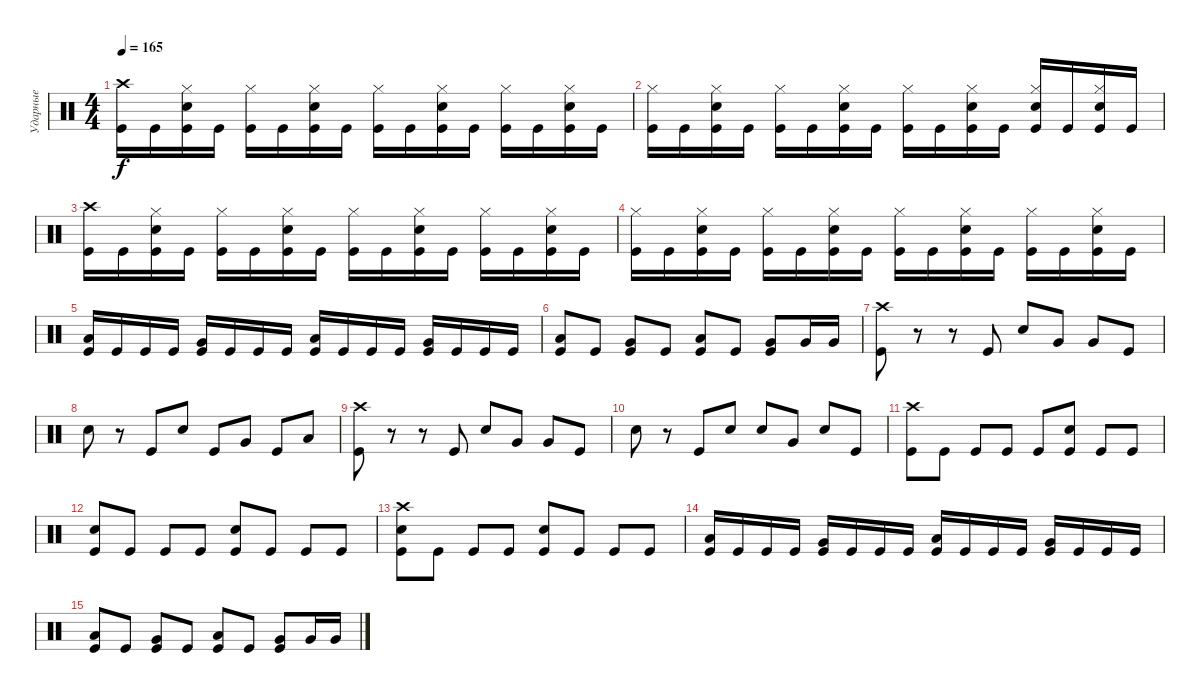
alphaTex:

\track ("Ударные" "Ударные") {instrument percussion}
\staff {score}
\articulation defaults
\ts (4 4)
\tempo 165
\clef neutral
\ks c
("Crash high (hit)" "Kick (hit)").16{dy f} "Kick (hit)".16 ("Hi-Hat (closed)" "Electric Snare (hit)" "Kick (hit)").16 "Kick (hit)".16 ("Hi-Hat (closed)" "Kick (hit)").16 "Kick (hit)".16 ("Hi-Hat (closed)" "Electric Snare (hit)" "Kick (hit)").16 "Kick (hit)".16 ("Hi-Hat (closed)" "Kick (hit)").16 "Kick (hit)".16 ("Hi-Hat (closed)" "Electric Snare (hit)" "Kick (hit)").16 "Kick (hit)".16 ("Hi-Hat (closed)" "Kick (hit)").16 "Kick (hit)".16 ("Hi-Hat (closed)" "Electric Snare (hit)" "Kick (hit)").16 "Kick (hit)".16 |
("Hi-Hat (closed)" "Kick (hit)").16 "Kick (hit)".16 ("Hi-Hat (closed)" "Electric Snare (hit)" "Kick (hit)").16 "Kick (hit)".16 ("Hi-Hat (closed)" "Kick (hit)").16 "Kick (hit)".16 ("Hi-Hat (closed)" "Electric Snare (hit)" "Kick (hit)").16 "Kick (hit)".16 ("Hi-Hat (closed)" "Kick (hit)").16 "Kick (hit)".16 ("Hi-Hat (closed)" "Electric Snare (hit)" "Kick (hit)").16 "Kick (hit)".16 ("Hi-Hat (closed)" "Electric Snare (hit)" "Kick (hit)").16 "Kick (hit)".16 ("Hi-Hat (closed)" "Electric Snare (hit)" "Kick (hit)").16 "Kick (hit)".16 |
("Crash high (hit)" "Kick (hit)").16 "Kick (hit)".16 ("Hi-Hat (closed)" "Electric Snare (hit)" "Kick (hit)").16 "Kick (hit)".16 ("Hi-Hat (closed)" "Kick (hit)").16 "Kick (hit)".16 ("Hi-Hat (closed)" "Electric Snare (hit)" "Kick (hit)").16 "Kick (hit)".16 ("Hi-Hat (closed)" "Kick (hit)").16 "Kick (hit)".16 ("Hi-Hat (closed)" "Electric Snare (hit)" "Kick (hit)").16 "Kick (hit)".16 ("Hi-Hat (closed)" "Kick (hit)").16 "Kick (hit)".16 ("Hi-Hat (closed)" "Electric Snare (hit)" "Kick (hit)").16 "Kick (hit)".16 |
("Hi-Hat (closed)" "Kick (hit)").16 "Kick (hit)".16 ("Hi-Hat (closed)" "Electric Snare (hit)" "Kick (hit)").16 "Kick (hit)".16 ("Hi-Hat (closed)" "Kick (hit)").16 "Kick (hit)".16 ("Hi-Hat (closed)" "Electric Snare (hit)" "Kick (hit)").16 "Kick (hit)".16 ("Hi-Hat (closed)" "Kick (hit)").16 "Kick (hit)".16 ("Hi-Hat (closed)" "Electric Snare (hit)" "Kick (hit)").16 "Kick (hit)".16 ("Hi-Hat (closed)" "Kick (hit)").16 "Kick (hit)".16 ("Hi-Hat (closed)" "Electric Snare (hit)" "Kick (hit)").16 "Kick (hit)".16 |
("Low Tom (hit)" "Kick (hit)").16 "Kick (hit)".16 "Kick (hit)".16 "Kick (hit)".16 ("Very Low Tom (hit)" "Kick (hit)").16 "Kick (hit)".16 "Kick (hit)".16 "Kick (hit)".16 ("Low Tom (hit)" "Kick (hit)").16 "Kick (hit)".16 "Kick (hit)".16 "Kick (hit)".16 ("Very Low Tom (hit)" "Kick (hit)").16 "Kick (hit)".16 "Kick (hit)".16 "Kick (hit)".16 |
("Low Tom (hit)" "Kick (hit)").8 "Kick (hit)".8 ("Very Low Tom (hit)" "Kick (hit)").8 "Kick (hit)".8 ("Low Tom (hit)" "Kick (hit)").8 "Kick (hit)".8 ("Very Low Tom (hit)" "Kick (hit)").8 "Very Low Tom (hit)".16 "Very Low Tom (hit)".16 |
("Crash high (hit)" "Kick (hit)").8 r.8 r.8 "Kick (hit)".8 "Electric Snare (hit)".8 "Very Low Tom (hit)".8 "Very Low Tom (hit)".8 "Kick (hit)".8 |
"Electric Snare (hit)".8 r.8 "Kick (hit)".8 "Electric Snare (hit)".8 "Kick (hit)".8 "Very Low Tom (hit)".8 "Kick (hit)".8 "Low Tom (hit)".8 |
("Crash high (hit)" "Kick (hit)").8 r.8 r.8 "Kick (hit)".8 "Electric Snare (hit)".8 "Very Low Tom (hit)".8 "Very Low Tom (hit)".8 "Kick (hit)".8 |
"Electric Snare (hit)".8 r.8 "Kick (hit)".8 "Electric Snare (hit)".8 "Electric Snare (hit)".8 "Very Low Tom (hit)".8 "Electric Snare (hit)".8 "Kick (hit)".8 |
("Crash high (hit)" "Kick (hit)").8 "Kick (hit)".8 "Kick (hit)".8 "Kick (hit)".8 "Kick (hit)".8 ("Electric Snare (hit)" "Kick (hit)").8 "Kick (hit)".8 "Kick (hit)".8 |
("Electric Snare (hit)" "Kick (hit)").8 "Kick (hit)".8 "Kick (hit)".8 "Kick (hit)".8 ("Electric Snare (hit)" "Kick (hit)").8 "Kick (hit)".8 "Kick (hit)".8 "Kick (hit)".8 |
("Crash high (hit)" "Electric Snare (hit)" "Kick (hit)").8 "Kick (hit)".8 "Kick (hit)".8 "Kick (hit)".8 ("Electric Snare (hit)" "Kick (hit)").8 "Kick (hit)".8 "Kick (hit)".8 "Kick (hit)".8 |
("Low Tom (hit)" "Kick (hit)").16 "Kick (hit)".16 "Kick (hit)".16 "Kick (hit)".16 ("Very Low Tom (hit)" "Kick (hit)").16 "Kick (hit)".16 "Kick (hit)".16 "Kick (hit)".16 ("Low Tom (hit)" "Kick (hit)").16 "Kick (hit)".16 "Kick (hit)".16 "Kick (hit)".16 ("Very Low Tom (hit)" "Kick (hit)").16 "Kick (hit)".16 "Kick (hit)".16 "Kick (hit)".16 |
("Low Tom (hit)" "Kick (hit)").8 "Kick (hit)".8 ("Very Low Tom (hit)" "Kick (hit)").8 "Kick (hit)".8 ("Low Tom (hit)" "Kick (hit)").8 "Kick (hit)".8 ("Very Low Tom (hit)" "Kick (hit)").8 "Very Low Tom (hit)".16 "Very Low Tom (hit)".16
